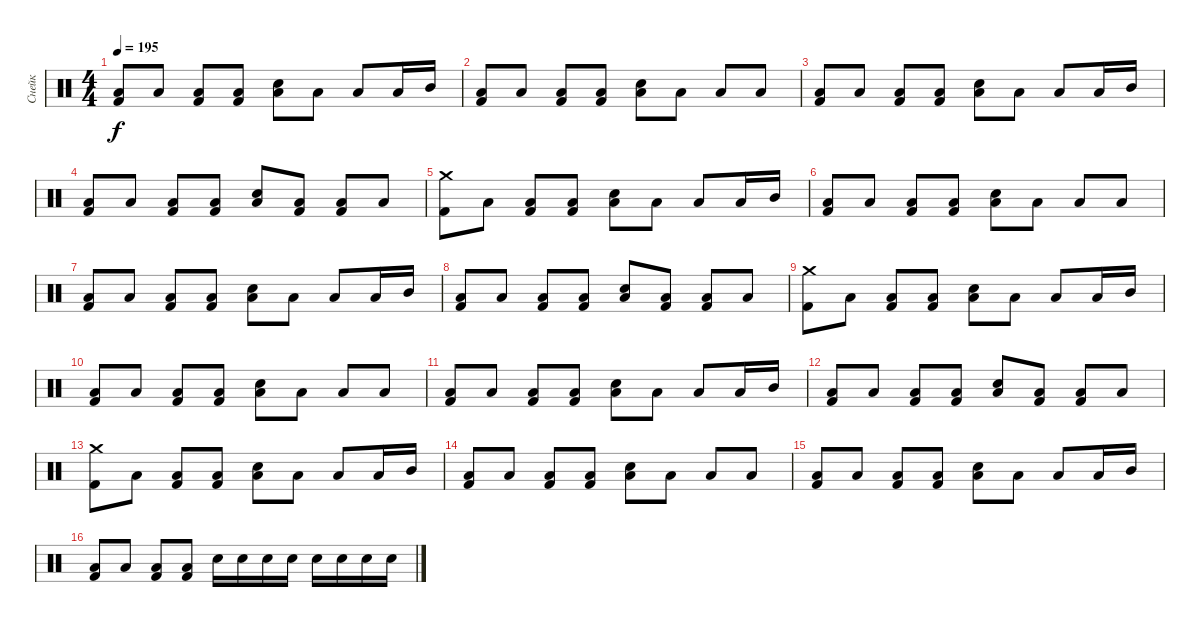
\track ("Снейк" "Снейк") {instrument percussion}
\staff {score}
\articulation defaults
\ts (4 4)
\tempo 195
\clef neutral
\ks c
("Kick (hit) 2" "Low Floor Tom (hit)").8{dy f} "Low Floor Tom (hit)".8 ("Kick (hit) 2" "Low Floor Tom (hit)").8 ("Kick (hit) 2" "Low Floor Tom (hit)").8 ("Electric Snare (hit)" "Low Floor Tom (hit)").8 "Low Floor Tom (hit)".8 "Low Floor Tom (hit)".8 "Low Floor Tom (hit)".16 "Mid Tom (hit)".16 |
("Kick (hit) 2" "Low Floor Tom (hit)").8 "Low Floor Tom (hit)".8 ("Kick (hit) 2" "Low Floor Tom (hit)").8 ("Kick (hit) 2" "Low Floor Tom (hit)").8 ("Electric Snare (hit)" "Low Floor Tom (hit)").8 "Low Floor Tom (hit)".8 "Low Floor Tom (hit)".8 "Low Floor Tom (hit)".8 |
("Kick (hit) 2" "Low Floor Tom (hit)").8 "Low Floor Tom (hit)".8 ("Kick (hit) 2" "Low Floor Tom (hit)").8 ("Kick (hit) 2" "Low Floor Tom (hit)").8 ("Electric Snare (hit)" "Low Floor Tom (hit)").8 "Low Floor Tom (hit)".8 "Low Floor Tom (hit)".8 "Low Floor Tom (hit)".16 "Mid Tom (hit)".16 |
("Kick (hit) 2" "Low Floor Tom (hit)").8 "Low Floor Tom (hit)".8 ("Kick (hit) 2" "Low Floor Tom (hit)").8 ("Kick (hit) 2" "Low Floor Tom (hit)").8 ("Electric Snare (hit)" "Low Floor Tom (hit)").8 ("Kick (hit) 2" "Low Floor Tom (hit)").8 ("Kick (hit) 2" "Low Floor Tom (hit)").8 "Low Floor Tom (hit)".8 |
("Kick (hit) 2" "Crash medium (hit)").8 "Low Floor Tom (hit)".8 ("Kick (hit) 2" "Low Floor Tom (hit)").8 ("Kick (hit) 2" "Low Floor Tom (hit)").8 ("Electric Snare (hit)" "Low Floor Tom (hit)").8 "Low Floor Tom (hit)".8 "Low Floor Tom (hit)".8 "Low Floor Tom (hit)".16 "Mid Tom (hit)".16 |
("Kick (hit) 2" "Low Floor Tom (hit)").8 "Low Floor Tom (hit)".8 ("Kick (hit) 2" "Low Floor Tom (hit)").8 ("Kick (hit) 2" "Low Floor Tom (hit)").8 ("Electric Snare (hit)" "Low Floor Tom (hit)").8 "Low Floor Tom (hit)".8 "Low Floor Tom (hit)".8 "Low Floor Tom (hit)".8 |
("Kick (hit) 2" "Low Floor Tom (hit)").8 "Low Floor Tom (hit)".8 ("Kick (hit) 2" "Low Floor Tom (hit)").8 ("Kick (hit) 2" "Low Floor Tom (hit)").8 ("Electric Snare (hit)" "Low Floor Tom (hit)").8 "Low Floor Tom (hit)".8 "Low Floor Tom (hit)".8 "Low Floor Tom (hit)".16 "Mid Tom (hit)".16 |
("Kick (hit) 2" "Low Floor Tom (hit)").8 "Low Floor Tom (hit)".8 ("Kick (hit) 2" "Low Floor Tom (hit)").8 ("Kick (hit) 2" "Low Floor Tom (hit)").8 ("Electric Snare (hit)" "Low Floor Tom (hit)").8 ("Kick (hit) 2" "Low Floor Tom (hit)").8 ("Kick (hit) 2" "Low Floor Tom (hit)").8 "Low Floor Tom (hit)".8 |
("Kick (hit) 2" "Crash medium (hit)").8 "Low Floor Tom (hit)".8 ("Kick (hit) 2" "Low Floor Tom (hit)").8 ("Kick (hit) 2" "Low Floor Tom (hit)").8 ("Electric Snare (hit)" "Low Floor Tom (hit)").8 "Low Floor Tom (hit)".8 "Low Floor Tom (hit)".8 "Low Floor Tom (hit)".16 "Mid Tom (hit)".16 |
("Kick (hit) 2" "Low Floor Tom (hit)").8 "Low Floor Tom (hit)".8 ("Kick (hit) 2" "Low Floor Tom (hit)").8 ("Kick (hit) 2" "Low Floor Tom (hit)").8 ("Electric Snare (hit)" "Low Floor Tom (hit)").8 "Low Floor Tom (hit)".8 "Low Floor Tom (hit)".8 "Low Floor Tom (hit)".8 |
("Kick (hit) 2" "Low Floor Tom (hit)").8 "Low Floor Tom (hit)".8 ("Kick (hit) 2" "Low Floor Tom (hit)").8 ("Kick (hit) 2" "Low Floor Tom (hit)").8 ("Electric Snare (hit)" "Low Floor Tom (hit)").8 "Low Floor Tom (hit)".8 "Low Floor Tom (hit)".8 "Low Floor Tom (hit)".16 "Mid Tom (hit)".16 |
("Kick (hit) 2" "Low Floor Tom (hit)").8 "Low Floor Tom (hit)".8 ("Kick (hit) 2" "Low Floor Tom (hit)").8 ("Kick (hit) 2" "Low Floor Tom (hit)").8 ("Electric Snare (hit)" "Low Floor Tom (hit)").8 ("Kick (hit) 2" "Low Floor Tom (hit)").8 ("Kick (hit) 2" "Low Floor Tom (hit)").8 "Low Floor Tom (hit)".8 |
("Kick (hit) 2" "Crash medium (hit)").8 "Low Floor Tom (hit)".8 ("Kick (hit) 2" "Low Floor Tom (hit)").8 ("Kick (hit) 2" "Low Floor Tom (hit)").8 ("Electric Snare (hit)" "Low Floor Tom (hit)").8 "Low Floor Tom (hit)".8 "Low Floor Tom (hit)".8 "Low Floor Tom (hit)".16 "Mid Tom (hit)".16 |
("Kick (hit) 2" "Low Floor Tom (hit)").8 "Low Floor Tom (hit)".8 ("Kick (hit) 2" "Low Floor Tom (hit)").8 ("Kick (hit) 2" "Low Floor Tom (hit)").8 ("Electric Snare (hit)" "Low Floor Tom (hit)").8 "Low Floor Tom (hit)".8 "Low Floor Tom (hit)".8 "Low Floor Tom (hit)".8 |
("Kick (hit) 2" "Low Floor Tom (hit)").8 "Low Floor Tom (hit)".8 ("Kick (hit) 2" "Low Floor Tom (hit)").8 ("Kick (hit) 2" "Low Floor Tom (hit)").8 ("Electric Snare (hit)" "Low Floor Tom (hit)").8 "Low Floor Tom (hit)".8 "Low Floor Tom (hit)".8 "Low Floor Tom (hit)".16 "Mid Tom (hit)".16 |
("Kick (hit) 2" "Low Floor Tom (hit)").8 "Low Floor Tom (hit)".8 ("Kick (hit) 2" "Low Floor Tom (hit)").8 ("Kick (hit) 2" "Low Floor Tom (hit)").8 "Electric Snare (hit)".16 "Electric Snare (hit)".16 "Electric Snare (hit)".16 "Electric Snare (hit)".16 "Electric Snare (hit)".16 "Electric Snare (hit)".16 "Electric Snare (hit)".16 "Electric Snare (hit)".16
